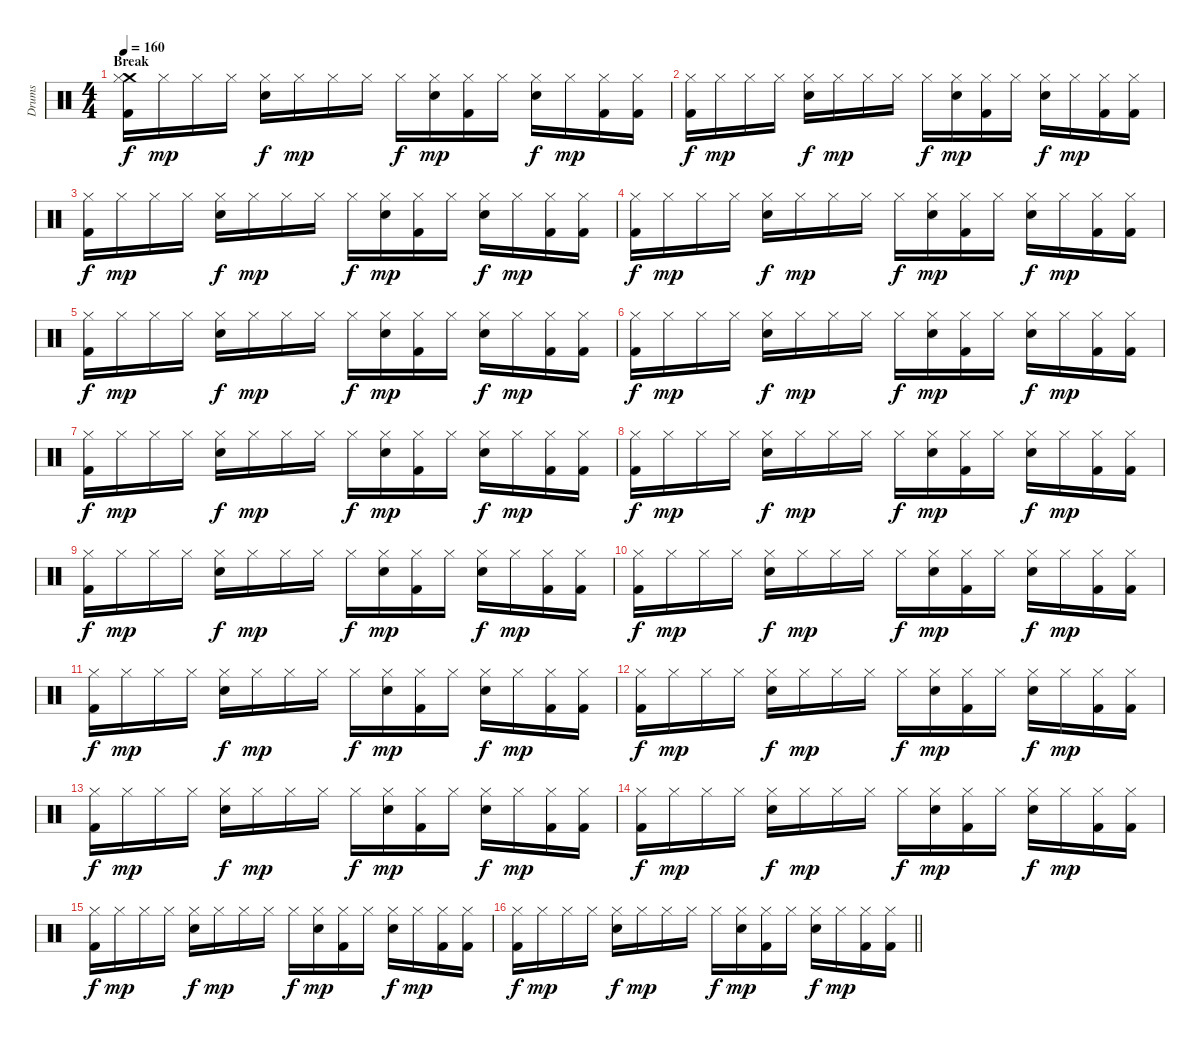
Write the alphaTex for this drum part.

\track ("Drums" "Drums") {instrument percussion}
\staff {score}
\articulation defaults
\ts (4 4)
\section ("" "Break")
\tempo 160
\clef neutral
\ks c
("Kick (hit) 2" "Crash medium (hit)" "Hi-Hat (closed)").16{dy f} "Hi-Hat (closed)".16{dy mp} "Hi-Hat (closed)".16 "Hi-Hat (closed)".16 ("Snare (hit) 2" "Hi-Hat (closed)").16{dy f} "Hi-Hat (closed)".16{dy mp} "Hi-Hat (closed)".16 "Hi-Hat (closed)".16 "Hi-Hat (closed)".16{dy f} ("Snare (hit) 2" "Hi-Hat (closed)").16{dy mp} ("Kick (hit) 2" "Hi-Hat (closed)").16 "Hi-Hat (closed)".16 ("Snare (hit) 2" "Hi-Hat (closed)").16{dy f} "Hi-Hat (closed)".16{dy mp} ("Kick (hit) 2" "Hi-Hat (closed)").16 ("Kick (hit) 2" "Hi-Hat (closed)").16 |
("Kick (hit) 2" "Hi-Hat (closed)").16{dy f} "Hi-Hat (closed)".16{dy mp} "Hi-Hat (closed)".16 "Hi-Hat (closed)".16 ("Snare (hit) 2" "Hi-Hat (closed)").16{dy f} "Hi-Hat (closed)".16{dy mp} "Hi-Hat (closed)".16 "Hi-Hat (closed)".16 "Hi-Hat (closed)".16{dy f} ("Snare (hit) 2" "Hi-Hat (closed)").16{dy mp} ("Kick (hit) 2" "Hi-Hat (closed)").16 "Hi-Hat (closed)".16 ("Snare (hit) 2" "Hi-Hat (closed)").16{dy f} "Hi-Hat (closed)".16{dy mp} ("Kick (hit) 2" "Hi-Hat (closed)").16 ("Kick (hit) 2" "Hi-Hat (closed)").16 |
("Kick (hit) 2" "Hi-Hat (closed)").16{dy f} "Hi-Hat (closed)".16{dy mp} "Hi-Hat (closed)".16 "Hi-Hat (closed)".16 ("Snare (hit) 2" "Hi-Hat (closed)").16{dy f} "Hi-Hat (closed)".16{dy mp} "Hi-Hat (closed)".16 "Hi-Hat (closed)".16 "Hi-Hat (closed)".16{dy f} ("Snare (hit) 2" "Hi-Hat (closed)").16{dy mp} ("Kick (hit) 2" "Hi-Hat (closed)").16 "Hi-Hat (closed)".16 ("Snare (hit) 2" "Hi-Hat (closed)").16{dy f} "Hi-Hat (closed)".16{dy mp} ("Kick (hit) 2" "Hi-Hat (closed)").16 ("Kick (hit) 2" "Hi-Hat (closed)").16 |
("Kick (hit) 2" "Hi-Hat (closed)").16{dy f} "Hi-Hat (closed)".16{dy mp} "Hi-Hat (closed)".16 "Hi-Hat (closed)".16 ("Snare (hit) 2" "Hi-Hat (closed)").16{dy f} "Hi-Hat (closed)".16{dy mp} "Hi-Hat (closed)".16 "Hi-Hat (closed)".16 "Hi-Hat (closed)".16{dy f} ("Snare (hit) 2" "Hi-Hat (closed)").16{dy mp} ("Kick (hit) 2" "Hi-Hat (closed)").16 "Hi-Hat (closed)".16 ("Snare (hit) 2" "Hi-Hat (closed)").16{dy f} "Hi-Hat (closed)".16{dy mp} ("Kick (hit) 2" "Hi-Hat (closed)").16 ("Kick (hit) 2" "Hi-Hat (closed)").16 |
("Kick (hit) 2" "Hi-Hat (closed)").16{dy f} "Hi-Hat (closed)".16{dy mp} "Hi-Hat (closed)".16 "Hi-Hat (closed)".16 ("Snare (hit) 2" "Hi-Hat (closed)").16{dy f} "Hi-Hat (closed)".16{dy mp} "Hi-Hat (closed)".16 "Hi-Hat (closed)".16 "Hi-Hat (closed)".16{dy f} ("Snare (hit) 2" "Hi-Hat (closed)").16{dy mp} ("Kick (hit) 2" "Hi-Hat (closed)").16 "Hi-Hat (closed)".16 ("Snare (hit) 2" "Hi-Hat (closed)").16{dy f} "Hi-Hat (closed)".16{dy mp} ("Kick (hit) 2" "Hi-Hat (closed)").16 ("Kick (hit) 2" "Hi-Hat (closed)").16 |
("Kick (hit) 2" "Hi-Hat (closed)").16{dy f} "Hi-Hat (closed)".16{dy mp} "Hi-Hat (closed)".16 "Hi-Hat (closed)".16 ("Snare (hit) 2" "Hi-Hat (closed)").16{dy f} "Hi-Hat (closed)".16{dy mp} "Hi-Hat (closed)".16 "Hi-Hat (closed)".16 "Hi-Hat (closed)".16{dy f} ("Snare (hit) 2" "Hi-Hat (closed)").16{dy mp} ("Kick (hit) 2" "Hi-Hat (closed)").16 "Hi-Hat (closed)".16 ("Snare (hit) 2" "Hi-Hat (closed)").16{dy f} "Hi-Hat (closed)".16{dy mp} ("Kick (hit) 2" "Hi-Hat (closed)").16 ("Kick (hit) 2" "Hi-Hat (closed)").16 |
("Kick (hit) 2" "Hi-Hat (closed)").16{dy f} "Hi-Hat (closed)".16{dy mp} "Hi-Hat (closed)".16 "Hi-Hat (closed)".16 ("Snare (hit) 2" "Hi-Hat (closed)").16{dy f} "Hi-Hat (closed)".16{dy mp} "Hi-Hat (closed)".16 "Hi-Hat (closed)".16 "Hi-Hat (closed)".16{dy f} ("Snare (hit) 2" "Hi-Hat (closed)").16{dy mp} ("Kick (hit) 2" "Hi-Hat (closed)").16 "Hi-Hat (closed)".16 ("Snare (hit) 2" "Hi-Hat (closed)").16{dy f} "Hi-Hat (closed)".16{dy mp} ("Kick (hit) 2" "Hi-Hat (closed)").16 ("Kick (hit) 2" "Hi-Hat (closed)").16 |
("Kick (hit) 2" "Hi-Hat (closed)").16{dy f} "Hi-Hat (closed)".16{dy mp} "Hi-Hat (closed)".16 "Hi-Hat (closed)".16 ("Snare (hit) 2" "Hi-Hat (closed)").16{dy f} "Hi-Hat (closed)".16{dy mp} "Hi-Hat (closed)".16 "Hi-Hat (closed)".16 "Hi-Hat (closed)".16{dy f} ("Snare (hit) 2" "Hi-Hat (closed)").16{dy mp} ("Kick (hit) 2" "Hi-Hat (closed)").16 "Hi-Hat (closed)".16 ("Snare (hit) 2" "Hi-Hat (closed)").16{dy f} "Hi-Hat (closed)".16{dy mp} ("Kick (hit) 2" "Hi-Hat (closed)").16 ("Kick (hit) 2" "Hi-Hat (closed)").16 |
("Kick (hit) 2" "Hi-Hat (closed)").16{dy f} "Hi-Hat (closed)".16{dy mp} "Hi-Hat (closed)".16 "Hi-Hat (closed)".16 ("Snare (hit) 2" "Hi-Hat (closed)").16{dy f} "Hi-Hat (closed)".16{dy mp} "Hi-Hat (closed)".16 "Hi-Hat (closed)".16 "Hi-Hat (closed)".16{dy f} ("Snare (hit) 2" "Hi-Hat (closed)").16{dy mp} ("Kick (hit) 2" "Hi-Hat (closed)").16 "Hi-Hat (closed)".16 ("Snare (hit) 2" "Hi-Hat (closed)").16{dy f} "Hi-Hat (closed)".16{dy mp} ("Kick (hit) 2" "Hi-Hat (closed)").16 ("Kick (hit) 2" "Hi-Hat (closed)").16 |
("Kick (hit) 2" "Hi-Hat (closed)").16{dy f} "Hi-Hat (closed)".16{dy mp} "Hi-Hat (closed)".16 "Hi-Hat (closed)".16 ("Snare (hit) 2" "Hi-Hat (closed)").16{dy f} "Hi-Hat (closed)".16{dy mp} "Hi-Hat (closed)".16 "Hi-Hat (closed)".16 "Hi-Hat (closed)".16{dy f} ("Snare (hit) 2" "Hi-Hat (closed)").16{dy mp} ("Kick (hit) 2" "Hi-Hat (closed)").16 "Hi-Hat (closed)".16 ("Snare (hit) 2" "Hi-Hat (closed)").16{dy f} "Hi-Hat (closed)".16{dy mp} ("Kick (hit) 2" "Hi-Hat (closed)").16 ("Kick (hit) 2" "Hi-Hat (closed)").16 |
("Kick (hit) 2" "Hi-Hat (closed)").16{dy f} "Hi-Hat (closed)".16{dy mp} "Hi-Hat (closed)".16 "Hi-Hat (closed)".16 ("Snare (hit) 2" "Hi-Hat (closed)").16{dy f} "Hi-Hat (closed)".16{dy mp} "Hi-Hat (closed)".16 "Hi-Hat (closed)".16 "Hi-Hat (closed)".16{dy f} ("Snare (hit) 2" "Hi-Hat (closed)").16{dy mp} ("Kick (hit) 2" "Hi-Hat (closed)").16 "Hi-Hat (closed)".16 ("Snare (hit) 2" "Hi-Hat (closed)").16{dy f} "Hi-Hat (closed)".16{dy mp} ("Kick (hit) 2" "Hi-Hat (closed)").16 ("Kick (hit) 2" "Hi-Hat (closed)").16 |
("Kick (hit) 2" "Hi-Hat (closed)").16{dy f} "Hi-Hat (closed)".16{dy mp} "Hi-Hat (closed)".16 "Hi-Hat (closed)".16 ("Snare (hit) 2" "Hi-Hat (closed)").16{dy f} "Hi-Hat (closed)".16{dy mp} "Hi-Hat (closed)".16 "Hi-Hat (closed)".16 "Hi-Hat (closed)".16{dy f} ("Snare (hit) 2" "Hi-Hat (closed)").16{dy mp} ("Kick (hit) 2" "Hi-Hat (closed)").16 "Hi-Hat (closed)".16 ("Snare (hit) 2" "Hi-Hat (closed)").16{dy f} "Hi-Hat (closed)".16{dy mp} ("Kick (hit) 2" "Hi-Hat (closed)").16 ("Kick (hit) 2" "Hi-Hat (closed)").16 |
("Kick (hit) 2" "Hi-Hat (closed)").16{dy f} "Hi-Hat (closed)".16{dy mp} "Hi-Hat (closed)".16 "Hi-Hat (closed)".16 ("Snare (hit) 2" "Hi-Hat (closed)").16{dy f} "Hi-Hat (closed)".16{dy mp} "Hi-Hat (closed)".16 "Hi-Hat (closed)".16 "Hi-Hat (closed)".16{dy f} ("Snare (hit) 2" "Hi-Hat (closed)").16{dy mp} ("Kick (hit) 2" "Hi-Hat (closed)").16 "Hi-Hat (closed)".16 ("Snare (hit) 2" "Hi-Hat (closed)").16{dy f} "Hi-Hat (closed)".16{dy mp} ("Kick (hit) 2" "Hi-Hat (closed)").16 ("Kick (hit) 2" "Hi-Hat (closed)").16 |
("Kick (hit) 2" "Hi-Hat (closed)").16{dy f} "Hi-Hat (closed)".16{dy mp} "Hi-Hat (closed)".16 "Hi-Hat (closed)".16 ("Snare (hit) 2" "Hi-Hat (closed)").16{dy f} "Hi-Hat (closed)".16{dy mp} "Hi-Hat (closed)".16 "Hi-Hat (closed)".16 "Hi-Hat (closed)".16{dy f} ("Snare (hit) 2" "Hi-Hat (closed)").16{dy mp} ("Kick (hit) 2" "Hi-Hat (closed)").16 "Hi-Hat (closed)".16 ("Snare (hit) 2" "Hi-Hat (closed)").16{dy f} "Hi-Hat (closed)".16{dy mp} ("Kick (hit) 2" "Hi-Hat (closed)").16 ("Kick (hit) 2" "Hi-Hat (closed)").16 |
("Kick (hit) 2" "Hi-Hat (closed)").16{dy f} "Hi-Hat (closed)".16{dy mp} "Hi-Hat (closed)".16 "Hi-Hat (closed)".16 ("Snare (hit) 2" "Hi-Hat (closed)").16{dy f} "Hi-Hat (closed)".16{dy mp} "Hi-Hat (closed)".16 "Hi-Hat (closed)".16 "Hi-Hat (closed)".16{dy f} ("Snare (hit) 2" "Hi-Hat (closed)").16{dy mp} ("Kick (hit) 2" "Hi-Hat (closed)").16 "Hi-Hat (closed)".16 ("Snare (hit) 2" "Hi-Hat (closed)").16{dy f} "Hi-Hat (closed)".16{dy mp} ("Kick (hit) 2" "Hi-Hat (closed)").16 ("Kick (hit) 2" "Hi-Hat (closed)").16 |
\barLineRight lightlight
("Kick (hit) 2" "Hi-Hat (closed)").16{dy f} "Hi-Hat (closed)".16{dy mp} "Hi-Hat (closed)".16 "Hi-Hat (closed)".16 ("Snare (hit) 2" "Hi-Hat (closed)").16{dy f} "Hi-Hat (closed)".16{dy mp} "Hi-Hat (closed)".16 "Hi-Hat (closed)".16 "Hi-Hat (closed)".16{dy f} ("Snare (hit) 2" "Hi-Hat (closed)").16{dy mp} ("Kick (hit) 2" "Hi-Hat (closed)").16 "Hi-Hat (closed)".16 ("Snare (hit) 2" "Hi-Hat (closed)").16{dy f} "Hi-Hat (closed)".16{dy mp} ("Kick (hit) 2" "Hi-Hat (closed)").16 ("Kick (hit) 2" "Hi-Hat (closed)").16
